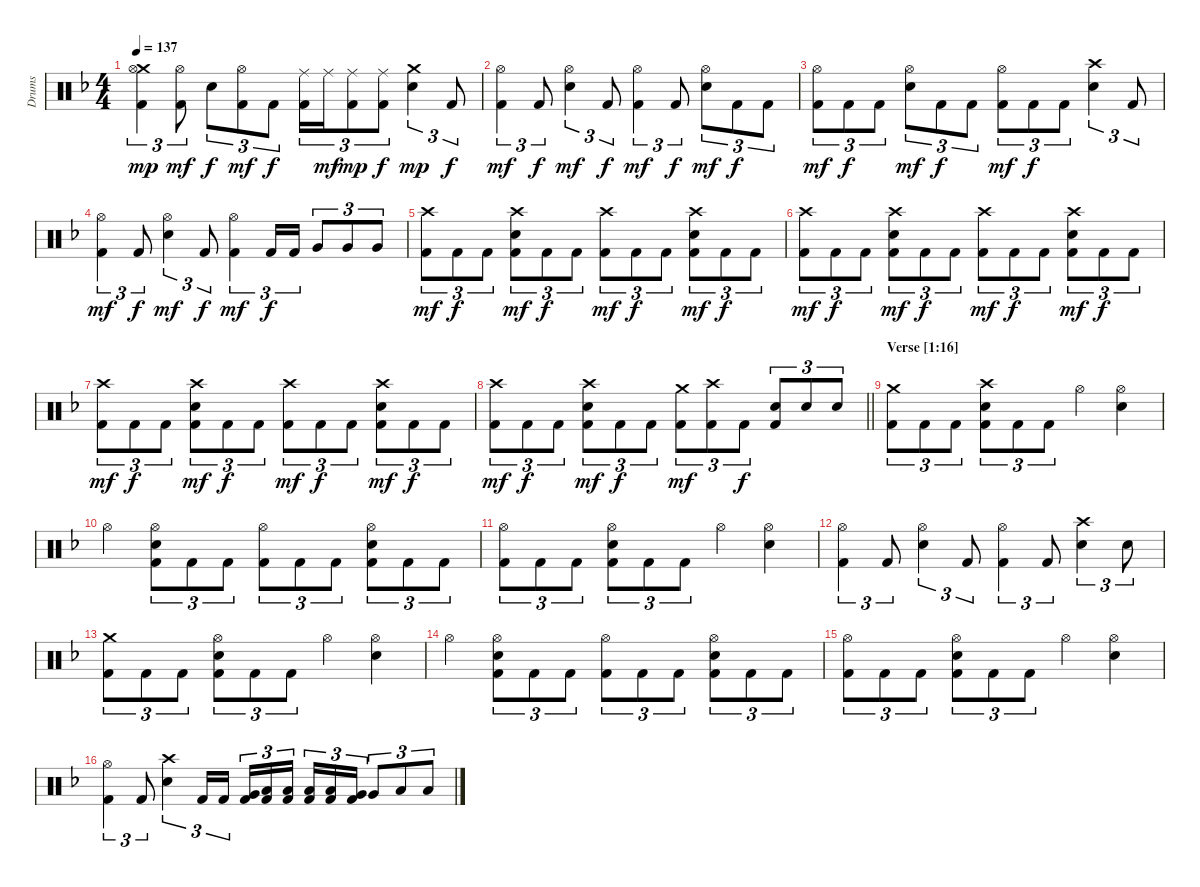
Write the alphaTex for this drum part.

\track ("Drums" "Drums") {instrument percussion}
\staff {score}
\articulation defaults
\ts (4 4)
\tempo 137
\clef neutral
\ks dminor
("Crash medium (hit)" "Hi-Hat (open)" "Kick (hit) 2").4{tu (3 2) dy mp} ("Hi-Hat (open)" "Kick (hit) 2").8{tu (3 2) dy mf} "Snare (hit) 2".8{tu (3 2) dy f} ("Hi-Hat (open)" "Kick (hit) 2").8{tu (3 2) dy mf} "Kick (hit) 2".8{tu (3 2) dy f} ("Ride (middle)" "Kick (hit) 2").16{tu (3 2)} "Ride (middle)".16{tu (3 2) dy mf} ("Ride (middle)" "Kick (hit) 2").8{tu (3 2) dy mp} ("Ride (middle)" "Kick (hit) 2").8{tu (3 2) dy f} ("Crash medium (hit)" "Snare (hit) 2").4{tu (3 2) dy mp} "Kick (hit) 2".8{tu (3 2) dy f} |
("Hi-Hat (open)" "Kick (hit) 2").4{tu (3 2) dy mf} "Kick (hit) 2".8{tu (3 2) dy f} ("Hi-Hat (open)" "Snare (hit) 2").4{tu (3 2) dy mf} "Kick (hit) 2".8{tu (3 2) dy f} ("Hi-Hat (open)" "Kick (hit) 2").4{tu (3 2) dy mf} "Kick (hit) 2".8{tu (3 2) dy f} ("Hi-Hat (open)" "Snare (hit) 2").8{tu (3 2) dy mf} "Kick (hit) 2".8{tu (3 2) dy f} "Kick (hit) 2".8{tu (3 2)} |
("Hi-Hat (open)" "Kick (hit) 2").8{tu (3 2) dy mf} "Kick (hit) 2".8{tu (3 2) dy f} "Kick (hit) 2".8{tu (3 2)} ("Hi-Hat (open)" "Snare (hit) 2").8{tu (3 2) dy mf} "Kick (hit) 2".8{tu (3 2) dy f} "Kick (hit) 2".8{tu (3 2)} ("Hi-Hat (open)" "Kick (hit) 2").8{tu (3 2) dy mf} "Kick (hit) 2".8{tu (3 2) dy f} "Kick (hit) 2".8{tu (3 2)} ("Crash high (hit)" "Snare (hit) 2").4{tu (3 2)} "Kick (hit) 2".8{tu (3 2)} |
("Hi-Hat (open)" "Kick (hit) 2").4{tu (3 2) dy mf} "Kick (hit) 2".8{tu (3 2) dy f} ("Hi-Hat (open)" "Snare (hit) 2").4{tu (3 2) dy mf} "Kick (hit) 2".8{tu (3 2) dy f} ("Hi-Hat (open)" "Kick (hit) 2").4{tu (3 2) dy mf} "Kick (hit) 2".16{tu (3 2) dy f} "Kick (hit) 2".16{tu (3 2)} "Very Low Tom (hit)".8{tu (3 2)} "Very Low Tom (hit)".8{tu (3 2)} "Very Low Tom (hit)".8{tu (3 2)} |
("Crash high (hit)" "Kick (hit) 2").8{tu (3 2) dy mf} "Kick (hit) 2".8{tu (3 2) dy f} "Kick (hit) 2".8{tu (3 2)} ("Crash high (hit)" "Snare (hit) 2" "Kick (hit) 2").8{tu (3 2) dy mf} "Kick (hit) 2".8{tu (3 2) dy f} "Kick (hit) 2".8{tu (3 2)} ("Crash high (hit)" "Kick (hit) 2").8{tu (3 2) dy mf} "Kick (hit) 2".8{tu (3 2) dy f} "Kick (hit) 2".8{tu (3 2)} ("Crash high (hit)" "Snare (hit) 2" "Kick (hit) 2").8{tu (3 2) dy mf} "Kick (hit) 2".8{tu (3 2) dy f} "Kick (hit) 2".8{tu (3 2)} |
("Crash high (hit)" "Kick (hit) 2").8{tu (3 2) dy mf} "Kick (hit) 2".8{tu (3 2) dy f} "Kick (hit) 2".8{tu (3 2)} ("Crash high (hit)" "Snare (hit) 2" "Kick (hit) 2").8{tu (3 2) dy mf} "Kick (hit) 2".8{tu (3 2) dy f} "Kick (hit) 2".8{tu (3 2)} ("Crash high (hit)" "Kick (hit) 2").8{tu (3 2) dy mf} "Kick (hit) 2".8{tu (3 2) dy f} "Kick (hit) 2".8{tu (3 2)} ("Crash high (hit)" "Snare (hit) 2" "Kick (hit) 2").8{tu (3 2) dy mf} "Kick (hit) 2".8{tu (3 2) dy f} "Kick (hit) 2".8{tu (3 2)} |
("Crash high (hit)" "Kick (hit) 2").8{tu (3 2) dy mf} "Kick (hit) 2".8{tu (3 2) dy f} "Kick (hit) 2".8{tu (3 2)} ("Crash high (hit)" "Snare (hit) 2" "Kick (hit) 2").8{tu (3 2) dy mf} "Kick (hit) 2".8{tu (3 2) dy f} "Kick (hit) 2".8{tu (3 2)} ("Crash high (hit)" "Kick (hit) 2").8{tu (3 2) dy mf} "Kick (hit) 2".8{tu (3 2) dy f} "Kick (hit) 2".8{tu (3 2)} ("Crash high (hit)" "Snare (hit) 2" "Kick (hit) 2").8{tu (3 2) dy mf} "Kick (hit) 2".8{tu (3 2) dy f} "Kick (hit) 2".8{tu (3 2)} |
\barLineRight lightlight
("Crash high (hit)" "Kick (hit) 2").8{tu (3 2) dy mf} "Kick (hit) 2".8{tu (3 2) dy f} "Kick (hit) 2".8{tu (3 2)} ("Crash high (hit)" "Snare (hit) 2" "Kick (hit) 2").8{tu (3 2) dy mf} "Kick (hit) 2".8{tu (3 2) dy f} "Kick (hit) 2".8{tu (3 2)} ("Crash medium (hit)" "Kick (hit) 2").8{tu (3 2) dy mf} ("Crash high (hit)" "Kick (hit) 2").8{tu (3 2)} "Kick (hit) 2".8{tu (3 2) dy f} ("Snare (hit) 2" "Kick (hit) 2").8{tu (3 2)} "Snare (hit) 2".8{tu (3 2)} "Snare (hit) 2".8{tu (3 2)} |
\section ("" "Verse [1:16]")
("Crash medium (hit)" "Kick (hit) 2").8{tu (3 2)} "Kick (hit) 2".8{tu (3 2)} "Kick (hit) 2".8{tu (3 2)} ("Crash high (hit)" "Snare (hit) 2" "Kick (hit) 2").8{tu (3 2)} "Kick (hit) 2".8{tu (3 2)} "Kick (hit) 2".8{tu (3 2)} "Hi-Hat (open)".4 ("Hi-Hat (open)" "Snare (hit) 2").4 |
"Hi-Hat (open)".4 ("Hi-Hat (open)" "Snare (hit) 2" "Kick (hit) 2").8{tu (3 2)} "Kick (hit) 2".8{tu (3 2)} "Kick (hit) 2".8{tu (3 2)} ("Hi-Hat (open)" "Kick (hit) 2").8{tu (3 2)} "Kick (hit) 2".8{tu (3 2)} "Kick (hit) 2".8{tu (3 2)} ("Hi-Hat (open)" "Snare (hit) 2" "Kick (hit) 2").8{tu (3 2)} "Kick (hit) 2".8{tu (3 2)} "Kick (hit) 2".8{tu (3 2)} |
("Hi-Hat (open)" "Kick (hit) 2").8{tu (3 2)} "Kick (hit) 2".8{tu (3 2)} "Kick (hit) 2".8{tu (3 2)} ("Hi-Hat (open)" "Snare (hit) 2" "Kick (hit) 2").8{tu (3 2)} "Kick (hit) 2".8{tu (3 2)} "Kick (hit) 2".8{tu (3 2)} "Hi-Hat (open)".4 ("Hi-Hat (open)" "Snare (hit) 2").4 |
("Hi-Hat (open)" "Kick (hit) 2").4{tu (3 2)} "Kick (hit) 2".8{tu (3 2)} ("Hi-Hat (open)" "Snare (hit) 2").4{tu (3 2)} "Kick (hit) 2".8{tu (3 2)} ("Hi-Hat (open)" "Kick (hit) 2").4{tu (3 2)} "Kick (hit) 2".8{tu (3 2)} ("Crash high (hit)" "Snare (hit) 2").4{tu (3 2)} "Snare (hit) 2".8{tu (3 2)} |
("Crash medium (hit)" "Kick (hit) 2").8{tu (3 2)} "Kick (hit) 2".8{tu (3 2)} "Kick (hit) 2".8{tu (3 2)} ("Hi-Hat (open)" "Snare (hit) 2" "Kick (hit) 2").8{tu (3 2)} "Kick (hit) 2".8{tu (3 2)} "Kick (hit) 2".8{tu (3 2)} "Hi-Hat (open)".4 ("Hi-Hat (open)" "Snare (hit) 2").4 |
"Hi-Hat (open)".4 ("Hi-Hat (open)" "Snare (hit) 2" "Kick (hit) 2").8{tu (3 2)} "Kick (hit) 2".8{tu (3 2)} "Kick (hit) 2".8{tu (3 2)} ("Hi-Hat (open)" "Kick (hit) 2").8{tu (3 2)} "Kick (hit) 2".8{tu (3 2)} "Kick (hit) 2".8{tu (3 2)} ("Hi-Hat (open)" "Snare (hit) 2" "Kick (hit) 2").8{tu (3 2)} "Kick (hit) 2".8{tu (3 2)} "Kick (hit) 2".8{tu (3 2)} |
("Hi-Hat (open)" "Kick (hit) 2").8{tu (3 2)} "Kick (hit) 2".8{tu (3 2)} "Kick (hit) 2".8{tu (3 2)} ("Hi-Hat (open)" "Snare (hit) 2" "Kick (hit) 2").8{tu (3 2)} "Kick (hit) 2".8{tu (3 2)} "Kick (hit) 2".8{tu (3 2)} "Hi-Hat (open)".4 ("Hi-Hat (open)" "Snare (hit) 2").4 |
("Hi-Hat (open)" "Kick (hit) 2").4{tu (3 2)} "Kick (hit) 2".8{tu (3 2)} ("Crash high (hit)" "Snare (hit) 2").4{tu (3 2)} "Kick (hit) 2".16{tu (3 2)} "Kick (hit) 2".16{tu (3 2)} ("Very Low Tom (hit)" "Kick (hit) 2").16{tu (3 2)} ("Low Floor Tom (hit)" "Kick (hit) 2").16{tu (3 2)} ("Low Floor Tom (hit)" "Kick (hit) 2").16{tu (3 2) beam splitsecondary} ("Low Floor Tom (hit)" "Kick (hit) 2").16{tu (3 2)} ("Low Floor Tom (hit)" "Kick (hit) 2").16{tu (3 2)} ("Very Low Tom (hit)" "Kick (hit) 2").16{tu (3 2)} "Very Low Tom (hit)".8{tu (3 2)} "Low Floor Tom (hit)".8{tu (3 2)} "Low Floor Tom (hit)".8{tu (3 2)}
